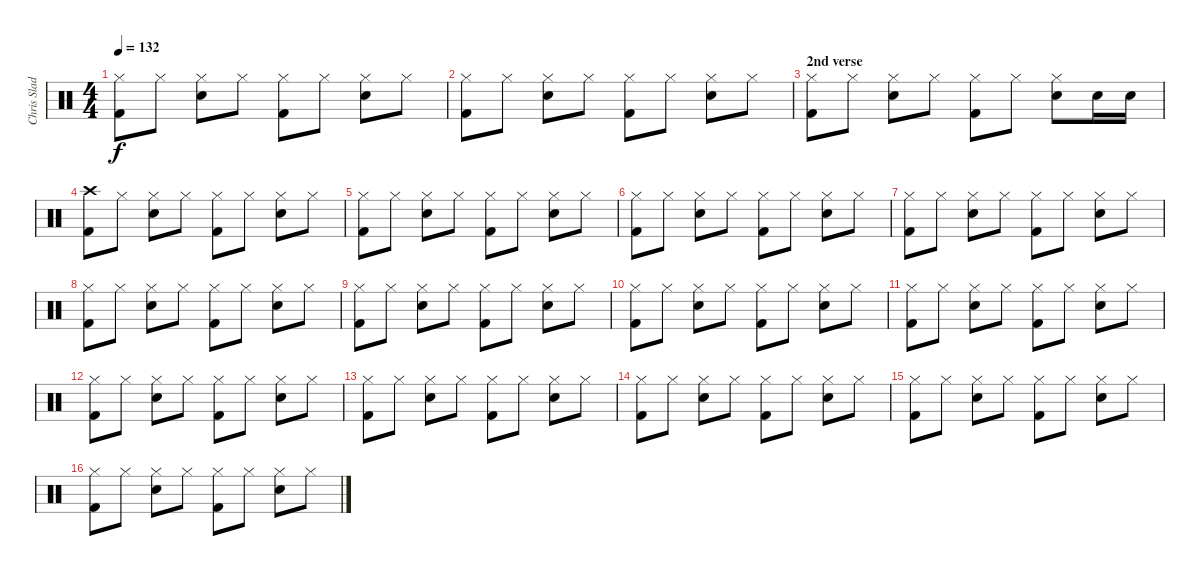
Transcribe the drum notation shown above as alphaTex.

\track ("Chris Slade" "Chris Slad") {instrument percussion}
\staff {score}
\articulation defaults
\ts (4 4)
\tempo 132
\clef neutral
\ks c
("Kick (hit) 2" "Hi-Hat (closed)").8{dy f} "Hi-Hat (closed)".8 ("Snare (hit) 2" "Hi-Hat (closed)").8 "Hi-Hat (closed)".8 ("Kick (hit) 2" "Hi-Hat (closed)").8 "Hi-Hat (closed)".8 ("Snare (hit) 2" "Hi-Hat (closed)").8 "Hi-Hat (closed)".8 |
("Kick (hit) 2" "Hi-Hat (closed)").8 "Hi-Hat (closed)".8 ("Snare (hit) 2" "Hi-Hat (closed)").8 "Hi-Hat (closed)".8 ("Kick (hit) 2" "Hi-Hat (closed)").8 "Hi-Hat (closed)".8 ("Snare (hit) 2" "Hi-Hat (closed)").8 "Hi-Hat (closed)".8 |
\section ("" "2nd verse")
("Kick (hit) 2" "Hi-Hat (closed)").8 "Hi-Hat (closed)".8 ("Snare (hit) 2" "Hi-Hat (closed)").8 "Hi-Hat (closed)".8 ("Kick (hit) 2" "Hi-Hat (closed)").8 "Hi-Hat (closed)".8 ("Snare (hit) 2" "Hi-Hat (closed)").8 "Snare (hit) 2".16 "Snare (hit) 2".16 |
("Kick (hit) 2" "Crash high (hit)").8 "Hi-Hat (closed)".8 ("Snare (hit) 2" "Hi-Hat (closed)").8 "Hi-Hat (closed)".8 ("Kick (hit) 2" "Hi-Hat (closed)").8 "Hi-Hat (closed)".8 ("Snare (hit) 2" "Hi-Hat (closed)").8 "Hi-Hat (closed)".8 |
("Kick (hit) 2" "Hi-Hat (closed)").8 "Hi-Hat (closed)".8 ("Snare (hit) 2" "Hi-Hat (closed)").8 "Hi-Hat (closed)".8 ("Kick (hit) 2" "Hi-Hat (closed)").8 "Hi-Hat (closed)".8 ("Snare (hit) 2" "Hi-Hat (closed)").8 "Hi-Hat (closed)".8 |
("Kick (hit) 2" "Hi-Hat (closed)").8 "Hi-Hat (closed)".8 ("Snare (hit) 2" "Hi-Hat (closed)").8 "Hi-Hat (closed)".8 ("Kick (hit) 2" "Hi-Hat (closed)").8 "Hi-Hat (closed)".8 ("Snare (hit) 2" "Hi-Hat (closed)").8 "Hi-Hat (closed)".8 |
("Kick (hit) 2" "Hi-Hat (closed)").8 "Hi-Hat (closed)".8 ("Snare (hit) 2" "Hi-Hat (closed)").8 "Hi-Hat (closed)".8 ("Kick (hit) 2" "Hi-Hat (closed)").8 "Hi-Hat (closed)".8 ("Snare (hit) 2" "Hi-Hat (closed)").8 "Hi-Hat (closed)".8 |
("Kick (hit) 2" "Hi-Hat (closed)").8 "Hi-Hat (closed)".8 ("Snare (hit) 2" "Hi-Hat (closed)").8 "Hi-Hat (closed)".8 ("Kick (hit) 2" "Hi-Hat (closed)").8 "Hi-Hat (closed)".8 ("Snare (hit) 2" "Hi-Hat (closed)").8 "Hi-Hat (closed)".8 |
("Kick (hit) 2" "Hi-Hat (closed)").8 "Hi-Hat (closed)".8 ("Snare (hit) 2" "Hi-Hat (closed)").8 "Hi-Hat (closed)".8 ("Kick (hit) 2" "Hi-Hat (closed)").8 "Hi-Hat (closed)".8 ("Snare (hit) 2" "Hi-Hat (closed)").8 "Hi-Hat (closed)".8 |
("Kick (hit) 2" "Hi-Hat (closed)").8 "Hi-Hat (closed)".8 ("Snare (hit) 2" "Hi-Hat (closed)").8 "Hi-Hat (closed)".8 ("Kick (hit) 2" "Hi-Hat (closed)").8 "Hi-Hat (closed)".8 ("Snare (hit) 2" "Hi-Hat (closed)").8 "Hi-Hat (closed)".8 |
("Kick (hit) 2" "Hi-Hat (closed)").8 "Hi-Hat (closed)".8 ("Snare (hit) 2" "Hi-Hat (closed)").8 "Hi-Hat (closed)".8 ("Kick (hit) 2" "Hi-Hat (closed)").8 "Hi-Hat (closed)".8 ("Snare (hit) 2" "Hi-Hat (closed)").8 "Hi-Hat (closed)".8 |
("Kick (hit) 2" "Hi-Hat (closed)").8 "Hi-Hat (closed)".8 ("Snare (hit) 2" "Hi-Hat (closed)").8 "Hi-Hat (closed)".8 ("Kick (hit) 2" "Hi-Hat (closed)").8 "Hi-Hat (closed)".8 ("Snare (hit) 2" "Hi-Hat (closed)").8 "Hi-Hat (closed)".8 |
("Kick (hit) 2" "Hi-Hat (closed)").8 "Hi-Hat (closed)".8 ("Snare (hit) 2" "Hi-Hat (closed)").8 "Hi-Hat (closed)".8 ("Kick (hit) 2" "Hi-Hat (closed)").8 "Hi-Hat (closed)".8 ("Snare (hit) 2" "Hi-Hat (closed)").8 "Hi-Hat (closed)".8 |
("Kick (hit) 2" "Hi-Hat (closed)").8 "Hi-Hat (closed)".8 ("Snare (hit) 2" "Hi-Hat (closed)").8 "Hi-Hat (closed)".8 ("Kick (hit) 2" "Hi-Hat (closed)").8 "Hi-Hat (closed)".8 ("Snare (hit) 2" "Hi-Hat (closed)").8 "Hi-Hat (closed)".8 |
("Kick (hit) 2" "Hi-Hat (closed)").8 "Hi-Hat (closed)".8 ("Snare (hit) 2" "Hi-Hat (closed)").8 "Hi-Hat (closed)".8 ("Kick (hit) 2" "Hi-Hat (closed)").8 "Hi-Hat (closed)".8 ("Snare (hit) 2" "Hi-Hat (closed)").8 "Hi-Hat (closed)".8 |
("Kick (hit) 2" "Hi-Hat (closed)").8 "Hi-Hat (closed)".8 ("Snare (hit) 2" "Hi-Hat (closed)").8 "Hi-Hat (closed)".8 ("Kick (hit) 2" "Hi-Hat (closed)").8 "Hi-Hat (closed)".8 ("Snare (hit) 2" "Hi-Hat (closed)").8 "Hi-Hat (closed)".8
